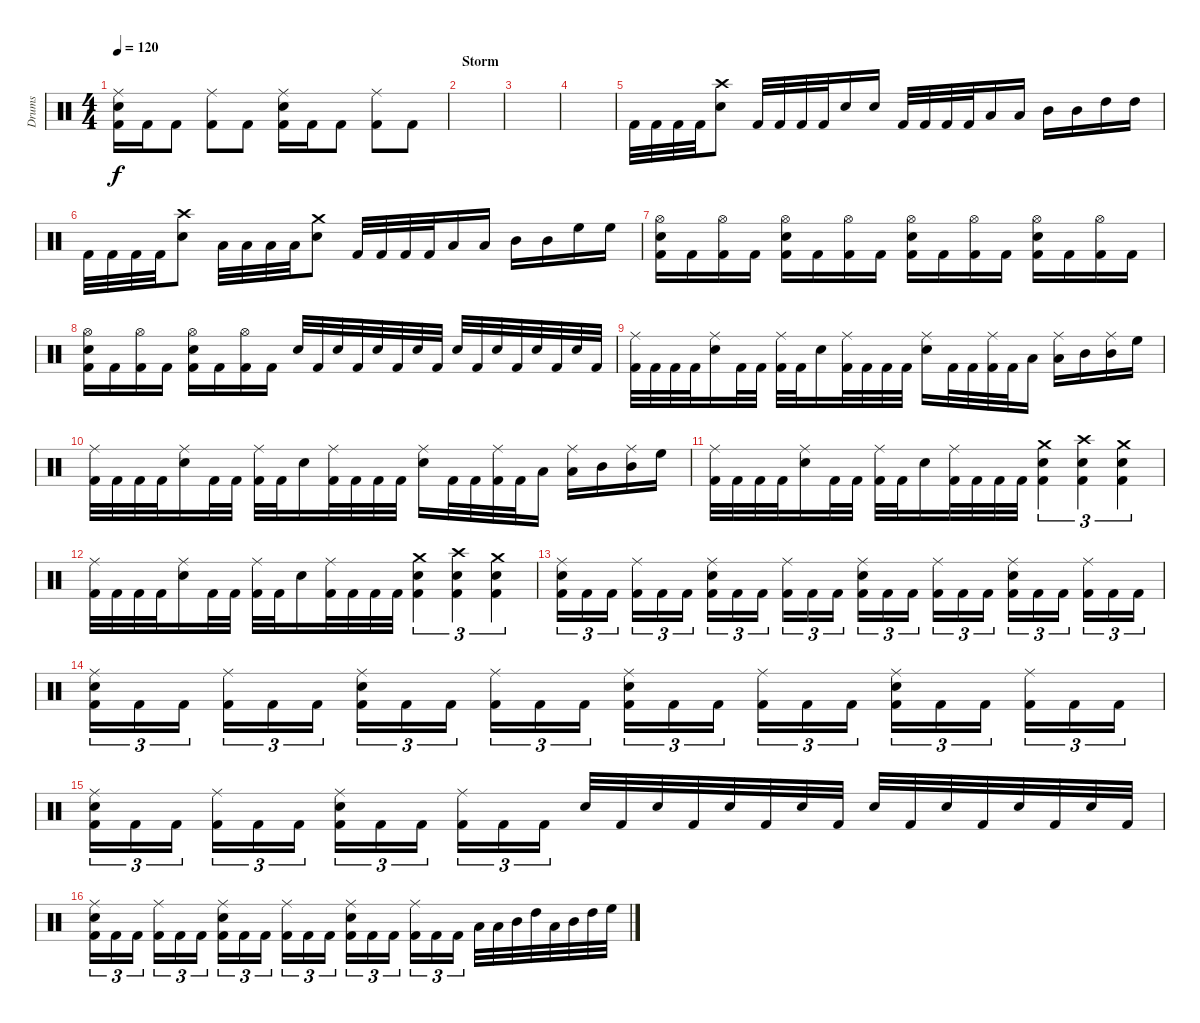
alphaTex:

\track ("Drums" "Drums") {instrument percussion}
\staff {score}
\articulation defaults
\ts (4 4)
\tempo 120
\clef neutral
\ks c
("Kick (hit) 2" "Snare (hit) 2" "Ride (middle)").16{dy f} "Kick (hit) 2".16 "Kick (hit) 2".8 ("Kick (hit) 2" "Ride (middle)").8 "Kick (hit) 2".8 ("Kick (hit) 2" "Snare (hit) 2" "Ride (middle)").16 "Kick (hit) 2".16 "Kick (hit) 2".8 ("Kick (hit) 2" "Ride (middle)").8 "Kick (hit) 2".8 |
\section ("" "Storm")
|
|
|
"Kick (hit) 2".32 "Kick (hit) 2".32 "Kick (hit) 2".32 "Kick (hit) 2".32 ("Snare (hit) 2" "Crash high (hit)").8 "Kick (hit) 2".32 "Kick (hit) 2".32 "Kick (hit) 2".32 "Kick (hit) 2".32 "Snare (hit) 2".16 "Snare (hit) 2".16 "Kick (hit) 2".32 "Kick (hit) 2".32 "Kick (hit) 2".32 "Kick (hit) 2".32 "Low Tom (hit)".16 "Low Tom (hit)".16 "Mid Tom (hit)".16 "Mid Tom (hit)".16 "High Tom (hit)".16 "High Tom (hit)".16 |
"Kick (hit) 2".32 "Kick (hit) 2".32 "Kick (hit) 2".32 "Kick (hit) 2".32 ("Snare (hit) 2" "Crash high (hit)").8 "Low Tom (hit)".32 "Low Tom (hit)".32 "Low Tom (hit)".32 "Low Tom (hit)".32 ("Snare (hit) 2" "Crash medium (hit)").8 "Kick (hit) 2".32 "Kick (hit) 2".32 "Kick (hit) 2".32 "Kick (hit) 2".32 "Low Tom (hit)".16 "Low Tom (hit)".16 "Mid Tom (hit)".16 "Mid Tom (hit)".16 "High Floor Tom (hit)".16 "High Floor Tom (hit)".16 |
("Kick (hit) 2" "Snare (hit) 2" "Hi-Hat (open)").16 "Kick (hit) 2".16 ("Kick (hit) 2" "Hi-Hat (open)").16 "Kick (hit) 2".16 ("Kick (hit) 2" "Snare (hit) 2" "Hi-Hat (open)").16 "Kick (hit) 2".16 ("Kick (hit) 2" "Hi-Hat (open)").16 "Kick (hit) 2".16 ("Kick (hit) 2" "Snare (hit) 2" "Hi-Hat (open)").16 "Kick (hit) 2".16 ("Kick (hit) 2" "Hi-Hat (open)").16 "Kick (hit) 2".16 ("Kick (hit) 2" "Snare (hit) 2" "Hi-Hat (open)").16 "Kick (hit) 2".16 ("Kick (hit) 2" "Hi-Hat (open)").16 "Kick (hit) 2".16 |
("Kick (hit) 2" "Snare (hit) 2" "Hi-Hat (open)").16 "Kick (hit) 2".16 ("Kick (hit) 2" "Hi-Hat (open)").16 "Kick (hit) 2".16 ("Kick (hit) 2" "Snare (hit) 2" "Hi-Hat (open)").16 "Kick (hit) 2".16 ("Kick (hit) 2" "Hi-Hat (open)").16 "Kick (hit) 2".16 "Snare (hit) 2".32 "Kick (hit) 2".32 "Snare (hit) 2".32 "Kick (hit) 2".32 "Snare (hit) 2".32 "Kick (hit) 2".32 "Snare (hit) 2".32 "Kick (hit) 2".32 "Snare (hit) 2".32 "Kick (hit) 2".32 "Snare (hit) 2".32 "Kick (hit) 2".32 "Snare (hit) 2".32 "Kick (hit) 2".32 "Snare (hit) 2".32 "Kick (hit) 2".32 |
("Kick (hit) 2" "Ride (middle)").32 "Kick (hit) 2".32 "Kick (hit) 2".32 "Kick (hit) 2".32 ("Snare (hit) 2" "Ride (middle)").16 "Kick (hit) 2".32 "Kick (hit) 2".32 ("Kick (hit) 2" "Ride (middle)").32 "Kick (hit) 2".32 "Snare (hit) 2".16 ("Kick (hit) 2" "Ride (middle)").32 "Kick (hit) 2".32 "Kick (hit) 2".32 "Kick (hit) 2".32 ("Snare (hit) 2" "Ride (middle)").16 "Kick (hit) 2".32 "Kick (hit) 2".32 ("Kick (hit) 2" "Ride (middle)").32 "Kick (hit) 2".32 "Low Tom (hit)".16 ("Low Tom (hit)" "Ride (middle)").16 "Mid Tom (hit)".16 ("Mid Tom (hit)" "Ride (middle)").16 "High Floor Tom (hit)".16 |
("Kick (hit) 2" "Ride (middle)").32 "Kick (hit) 2".32 "Kick (hit) 2".32 "Kick (hit) 2".32 ("Snare (hit) 2" "Ride (middle)").16 "Kick (hit) 2".32 "Kick (hit) 2".32 ("Kick (hit) 2" "Ride (middle)").32 "Kick (hit) 2".32 "Snare (hit) 2".16 ("Kick (hit) 2" "Ride (middle)").32 "Kick (hit) 2".32 "Kick (hit) 2".32 "Kick (hit) 2".32 ("Snare (hit) 2" "Ride (middle)").16 "Kick (hit) 2".32 "Kick (hit) 2".32 ("Kick (hit) 2" "Ride (middle)").32 "Kick (hit) 2".32 "Low Tom (hit)".16 ("Low Tom (hit)" "Ride (middle)").16 "Mid Tom (hit)".16 ("Mid Tom (hit)" "Ride (middle)").16 "High Floor Tom (hit)".16 |
("Kick (hit) 2" "Ride (middle)").32 "Kick (hit) 2".32 "Kick (hit) 2".32 "Kick (hit) 2".32 ("Snare (hit) 2" "Ride (middle)").16 "Kick (hit) 2".32 "Kick (hit) 2".32 ("Kick (hit) 2" "Ride (middle)").32 "Kick (hit) 2".32 "Snare (hit) 2".16 ("Kick (hit) 2" "Ride (middle)").32 "Kick (hit) 2".32 "Kick (hit) 2".32 "Kick (hit) 2".32 ("Kick (hit) 2" "Snare (hit) 2" "Crash medium (hit)").4{tu (3 2)} ("Kick (hit) 2" "Snare (hit) 2" "Crash high (hit)").4{tu (3 2)} ("Kick (hit) 2" "Snare (hit) 2" "Crash medium (hit)").4{tu (3 2)} |
("Kick (hit) 2" "Ride (middle)").32 "Kick (hit) 2".32 "Kick (hit) 2".32 "Kick (hit) 2".32 ("Snare (hit) 2" "Ride (middle)").16 "Kick (hit) 2".32 "Kick (hit) 2".32 ("Kick (hit) 2" "Ride (middle)").32 "Kick (hit) 2".32 "Snare (hit) 2".16 ("Kick (hit) 2" "Ride (middle)").32 "Kick (hit) 2".32 "Kick (hit) 2".32 "Kick (hit) 2".32 ("Kick (hit) 2" "Snare (hit) 2" "Crash medium (hit)").4{tu (3 2)} ("Kick (hit) 2" "Snare (hit) 2" "Crash high (hit)").4{tu (3 2)} ("Kick (hit) 2" "Snare (hit) 2" "Crash medium (hit)").4{tu (3 2)} |
("Kick (hit) 2" "Snare (hit) 2" "Ride (middle)").16{tu (3 2)} "Kick (hit) 2".16{tu (3 2)} "Kick (hit) 2".16{tu (3 2)} ("Kick (hit) 2" "Ride (middle)").16{tu (3 2)} "Kick (hit) 2".16{tu (3 2)} "Kick (hit) 2".16{tu (3 2)} ("Kick (hit) 2" "Snare (hit) 2" "Ride (middle)").16{tu (3 2)} "Kick (hit) 2".16{tu (3 2)} "Kick (hit) 2".16{tu (3 2)} ("Kick (hit) 2" "Ride (middle)").16{tu (3 2)} "Kick (hit) 2".16{tu (3 2)} "Kick (hit) 2".16{tu (3 2)} ("Kick (hit) 2" "Snare (hit) 2" "Ride (middle)").16{tu (3 2)} "Kick (hit) 2".16{tu (3 2)} "Kick (hit) 2".16{tu (3 2)} ("Kick (hit) 2" "Ride (middle)").16{tu (3 2)} "Kick (hit) 2".16{tu (3 2)} "Kick (hit) 2".16{tu (3 2)} ("Kick (hit) 2" "Snare (hit) 2" "Ride (middle)").16{tu (3 2)} "Kick (hit) 2".16{tu (3 2)} "Kick (hit) 2".16{tu (3 2)} ("Kick (hit) 2" "Ride (middle)").16{tu (3 2)} "Kick (hit) 2".16{tu (3 2)} "Kick (hit) 2".16{tu (3 2)} |
("Kick (hit) 2" "Snare (hit) 2" "Ride (middle)").16{tu (3 2)} "Kick (hit) 2".16{tu (3 2)} "Kick (hit) 2".16{tu (3 2)} ("Kick (hit) 2" "Ride (middle)").16{tu (3 2)} "Kick (hit) 2".16{tu (3 2)} "Kick (hit) 2".16{tu (3 2)} ("Kick (hit) 2" "Snare (hit) 2" "Ride (middle)").16{tu (3 2)} "Kick (hit) 2".16{tu (3 2)} "Kick (hit) 2".16{tu (3 2)} ("Kick (hit) 2" "Ride (middle)").16{tu (3 2)} "Kick (hit) 2".16{tu (3 2)} "Kick (hit) 2".16{tu (3 2)} ("Kick (hit) 2" "Snare (hit) 2" "Ride (middle)").16{tu (3 2)} "Kick (hit) 2".16{tu (3 2)} "Kick (hit) 2".16{tu (3 2)} ("Kick (hit) 2" "Ride (middle)").16{tu (3 2)} "Kick (hit) 2".16{tu (3 2)} "Kick (hit) 2".16{tu (3 2)} ("Kick (hit) 2" "Snare (hit) 2" "Ride (middle)").16{tu (3 2)} "Kick (hit) 2".16{tu (3 2)} "Kick (hit) 2".16{tu (3 2)} ("Kick (hit) 2" "Ride (middle)").16{tu (3 2)} "Kick (hit) 2".16{tu (3 2)} "Kick (hit) 2".16{tu (3 2)} |
("Kick (hit) 2" "Snare (hit) 2" "Ride (middle)").16{tu (3 2)} "Kick (hit) 2".16{tu (3 2)} "Kick (hit) 2".16{tu (3 2)} ("Kick (hit) 2" "Ride (middle)").16{tu (3 2)} "Kick (hit) 2".16{tu (3 2)} "Kick (hit) 2".16{tu (3 2)} ("Kick (hit) 2" "Snare (hit) 2" "Ride (middle)").16{tu (3 2)} "Kick (hit) 2".16{tu (3 2)} "Kick (hit) 2".16{tu (3 2)} ("Kick (hit) 2" "Ride (middle)").16{tu (3 2)} "Kick (hit) 2".16{tu (3 2)} "Kick (hit) 2".16{tu (3 2)} "Snare (hit) 2".32 "Kick (hit) 2".32 "Snare (hit) 2".32 "Kick (hit) 2".32 "Snare (hit) 2".32 "Kick (hit) 2".32 "Snare (hit) 2".32 "Kick (hit) 2".32 "Snare (hit) 2".32 "Kick (hit) 2".32 "Snare (hit) 2".32 "Kick (hit) 2".32 "Snare (hit) 2".32 "Kick (hit) 2".32 "Snare (hit) 2".32 "Kick (hit) 2".32 |
("Kick (hit) 2" "Snare (hit) 2" "Ride (middle)").16{tu (3 2)} "Kick (hit) 2".16{tu (3 2)} "Kick (hit) 2".16{tu (3 2)} ("Kick (hit) 2" "Ride (middle)").16{tu (3 2)} "Kick (hit) 2".16{tu (3 2)} "Kick (hit) 2".16{tu (3 2)} ("Kick (hit) 2" "Snare (hit) 2" "Ride (middle)").16{tu (3 2)} "Kick (hit) 2".16{tu (3 2)} "Kick (hit) 2".16{tu (3 2)} ("Kick (hit) 2" "Ride (middle)").16{tu (3 2)} "Kick (hit) 2".16{tu (3 2)} "Kick (hit) 2".16{tu (3 2)} ("Kick (hit) 2" "Snare (hit) 2" "Ride (middle)").16{tu (3 2)} "Kick (hit) 2".16{tu (3 2)} "Kick (hit) 2".16{tu (3 2)} ("Kick (hit) 2" "Ride (middle)").16{tu (3 2)} "Kick (hit) 2".16{tu (3 2)} "Kick (hit) 2".16{tu (3 2)} "Low Tom (hit)".32 "Low Tom (hit)".32 "Mid Tom (hit)".32 "High Tom (hit)".32 "Low Tom (hit)".32 "Mid Tom (hit)".32 "High Tom (hit)".32 "High Floor Tom (hit)".32
